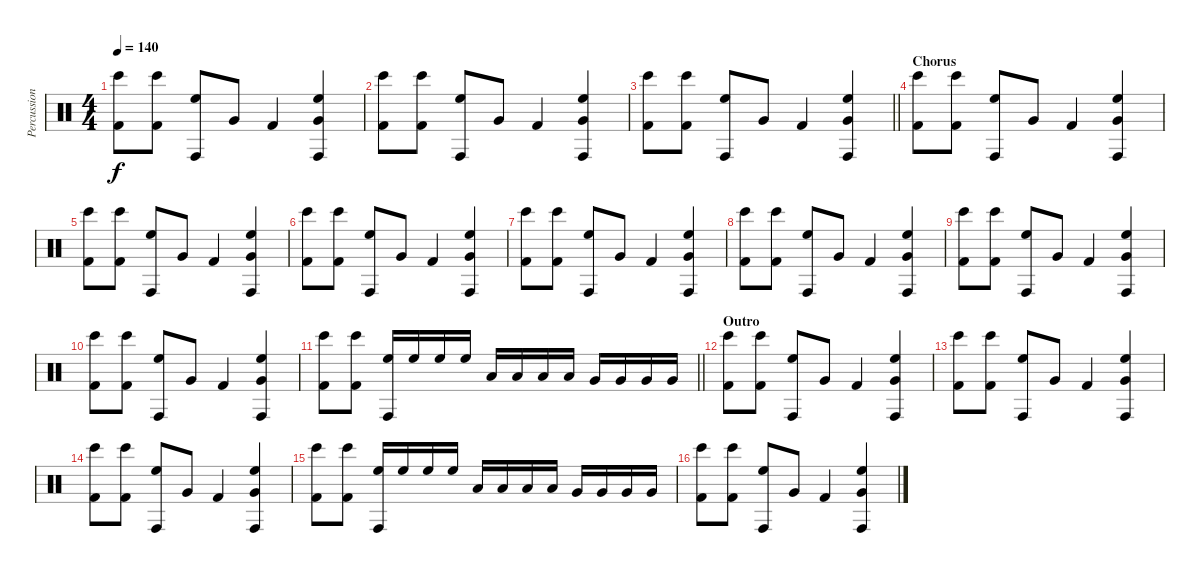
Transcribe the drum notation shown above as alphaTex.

\track ("Percussion" "Percussion") {instrument percussion}
\staff {score}
\articulation defaults
\ts (4 4)
\tempo 140
\clef neutral
\ks c
("Bongo High (hit)" "Kick (hit) 2").8{dy f} ("Bongo High (hit)" "Kick (hit) 2").8 ("Conga high (hit)" "High Floor Tom (hit)").8 "Very Low Tom (hit)".8 "Kick (hit) 2".4 ("Conga high (hit)" "High Floor Tom (hit)" "Very Low Tom (hit)").4 |
("Bongo High (hit)" "Kick (hit) 2").8 ("Bongo High (hit)" "Kick (hit) 2").8 ("Conga high (hit)" "High Floor Tom (hit)").8 "Very Low Tom (hit)".8 "Kick (hit) 2".4 ("Conga high (hit)" "High Floor Tom (hit)" "Very Low Tom (hit)").4 |
\barLineRight lightlight
("Bongo High (hit)" "Kick (hit) 2").8 ("Bongo High (hit)" "Kick (hit) 2").8 ("Conga high (hit)" "High Floor Tom (hit)").8 "Very Low Tom (hit)".8 "Kick (hit) 2".4 ("Conga high (hit)" "High Floor Tom (hit)" "Very Low Tom (hit)").4 |
\section ("" "Chorus")
("Bongo High (hit)" "Kick (hit) 2").8 ("Bongo High (hit)" "Kick (hit) 2").8 ("Conga high (hit)" "High Floor Tom (hit)").8 "Very Low Tom (hit)".8 "Kick (hit) 2".4 ("Conga high (hit)" "High Floor Tom (hit)" "Very Low Tom (hit)").4 |
("Bongo High (hit)" "Kick (hit) 2").8 ("Bongo High (hit)" "Kick (hit) 2").8 ("Conga high (hit)" "High Floor Tom (hit)").8 "Very Low Tom (hit)".8 "Kick (hit) 2".4 ("Conga high (hit)" "High Floor Tom (hit)" "Very Low Tom (hit)").4 |
("Bongo High (hit)" "Kick (hit) 2").8 ("Bongo High (hit)" "Kick (hit) 2").8 ("Conga high (hit)" "High Floor Tom (hit)").8 "Very Low Tom (hit)".8 "Kick (hit) 2".4 ("Conga high (hit)" "High Floor Tom (hit)" "Very Low Tom (hit)").4 |
("Bongo High (hit)" "Kick (hit) 2").8 ("Bongo High (hit)" "Kick (hit) 2").8 ("Conga high (hit)" "High Floor Tom (hit)").8 "Very Low Tom (hit)".8 "Kick (hit) 2".4 ("Conga high (hit)" "High Floor Tom (hit)" "Very Low Tom (hit)").4 |
("Bongo High (hit)" "Kick (hit) 2").8 ("Bongo High (hit)" "Kick (hit) 2").8 ("Conga high (hit)" "High Floor Tom (hit)").8 "Very Low Tom (hit)".8 "Kick (hit) 2".4 ("Conga high (hit)" "High Floor Tom (hit)" "Very Low Tom (hit)").4 |
("Bongo High (hit)" "Kick (hit) 2").8 ("Bongo High (hit)" "Kick (hit) 2").8 ("Conga high (hit)" "High Floor Tom (hit)").8 "Very Low Tom (hit)".8 "Kick (hit) 2".4 ("Conga high (hit)" "High Floor Tom (hit)" "Very Low Tom (hit)").4 |
("Bongo High (hit)" "Kick (hit) 2").8 ("Bongo High (hit)" "Kick (hit) 2").8 ("Conga high (hit)" "High Floor Tom (hit)").8 "Very Low Tom (hit)".8 "Kick (hit) 2".4 ("Conga high (hit)" "High Floor Tom (hit)" "Very Low Tom (hit)").4 |
\barLineRight lightlight
("Bongo High (hit)" "Kick (hit) 2").8 ("Bongo High (hit)" "Kick (hit) 2").8 ("Conga high (hit)" "High Floor Tom (hit)").16 "High Floor Tom (hit)".16 "High Floor Tom (hit)".16 "High Floor Tom (hit)".16 "Low Tom (hit)".16 "Low Tom (hit)".16 "Low Tom (hit)".16 "Low Tom (hit)".16 "Very Low Tom (hit)".16 "Very Low Tom (hit)".16 "Very Low Tom (hit)".16 "Very Low Tom (hit)".16 |
\section ("" "Outro")
("Bongo High (hit)" "Kick (hit) 2").8 ("Bongo High (hit)" "Kick (hit) 2").8 ("Conga high (hit)" "High Floor Tom (hit)").8 "Very Low Tom (hit)".8 "Kick (hit) 2".4 ("Conga high (hit)" "High Floor Tom (hit)" "Very Low Tom (hit)").4 |
("Bongo High (hit)" "Kick (hit) 2").8 ("Bongo High (hit)" "Kick (hit) 2").8 ("Conga high (hit)" "High Floor Tom (hit)").8 "Very Low Tom (hit)".8 "Kick (hit) 2".4 ("Conga high (hit)" "High Floor Tom (hit)" "Very Low Tom (hit)").4 |
("Bongo High (hit)" "Kick (hit) 2").8 ("Bongo High (hit)" "Kick (hit) 2").8 ("Conga high (hit)" "High Floor Tom (hit)").8 "Very Low Tom (hit)".8 "Kick (hit) 2".4 ("Conga high (hit)" "High Floor Tom (hit)" "Very Low Tom (hit)").4 |
("Bongo High (hit)" "Kick (hit) 2").8 ("Bongo High (hit)" "Kick (hit) 2").8 ("Conga high (hit)" "High Floor Tom (hit)").16 "High Floor Tom (hit)".16 "High Floor Tom (hit)".16 "High Floor Tom (hit)".16 "Low Tom (hit)".16 "Low Tom (hit)".16 "Low Tom (hit)".16 "Low Tom (hit)".16 "Very Low Tom (hit)".16 "Very Low Tom (hit)".16 "Very Low Tom (hit)".16 "Very Low Tom (hit)".16 |
("Bongo High (hit)" "Kick (hit) 2").8 ("Bongo High (hit)" "Kick (hit) 2").8 ("Conga high (hit)" "High Floor Tom (hit)").8 "Very Low Tom (hit)".8 "Kick (hit) 2".4 ("Conga high (hit)" "High Floor Tom (hit)" "Very Low Tom (hit)").4
